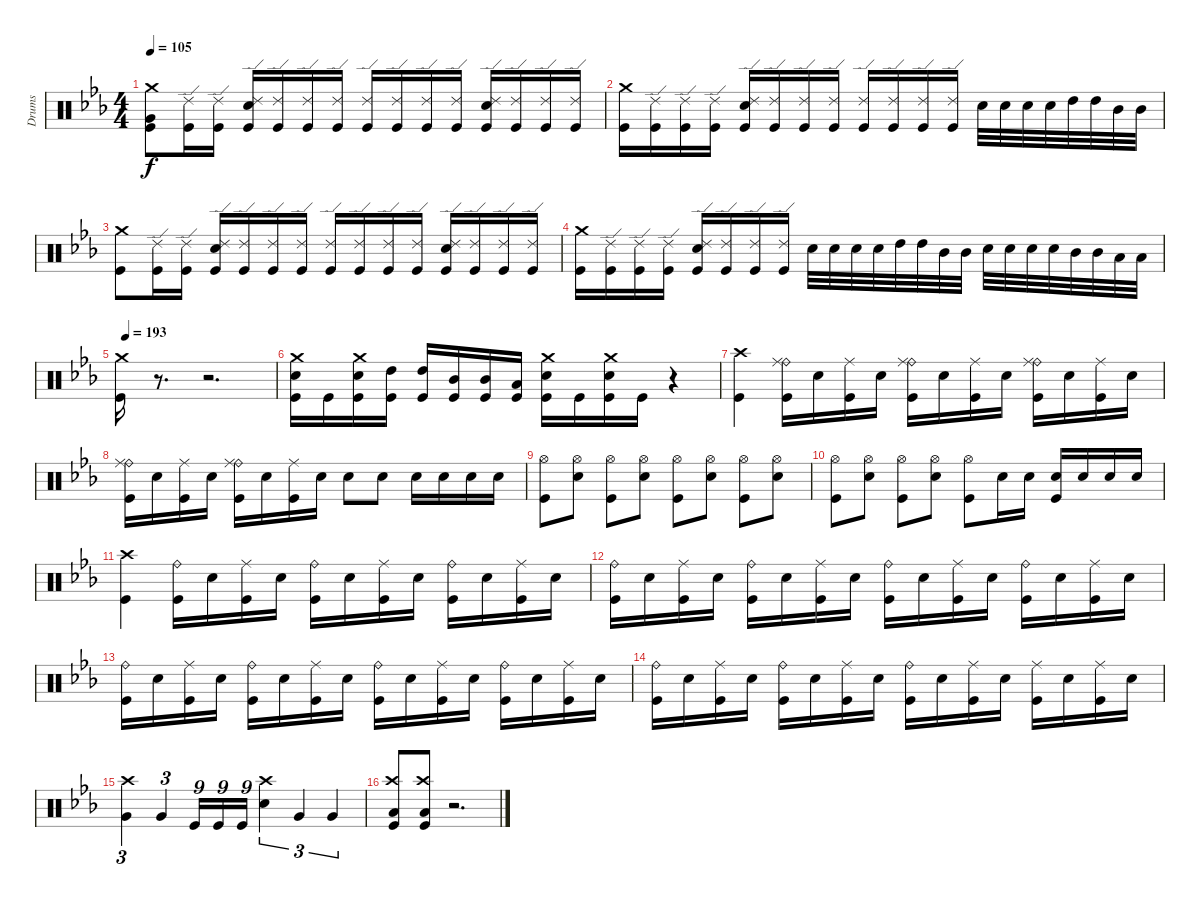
\track ("Drums" "Drums") {instrument percussion}
\staff {score}
\articulation defaults
\ts (4 4)
\tempo 105
\clef neutral
\ks cminor
("Crash medium (hit)" "Very Low Tom (hit)" "Kick (hit)").8{dy f} ("Ride (edge) 2" "Kick (hit)").16 ("Ride (edge) 2" "Kick (hit)").16 ("Ride (edge) 2" "Electric Snare (hit)" "Kick (hit)").16 ("Ride (edge) 2" "Kick (hit)").16 ("Ride (edge) 2" "Kick (hit)").16 ("Ride (edge) 2" "Kick (hit)").16 ("Ride (edge) 2" "Kick (hit)").16 ("Ride (edge) 2" "Kick (hit)").16 ("Ride (edge) 2" "Kick (hit)").16 ("Ride (edge) 2" "Kick (hit)").16 ("Ride (edge) 2" "Electric Snare (hit)" "Kick (hit)").16 ("Ride (edge) 2" "Kick (hit)").16 ("Ride (edge) 2" "Kick (hit)").16 ("Ride (edge) 2" "Kick (hit)").16 |
("Crash medium (hit)" "Kick (hit)").16 ("Ride (edge) 2" "Kick (hit)").16 ("Ride (edge) 2" "Kick (hit)").16 ("Ride (edge) 2" "Kick (hit)").16 ("Ride (edge) 2" "Electric Snare (hit)" "Kick (hit)").16 ("Ride (edge) 2" "Kick (hit)").16 ("Ride (edge) 2" "Kick (hit)").16 ("Ride (edge) 2" "Kick (hit)").16 ("Ride (edge) 2" "Kick (hit)").16 ("Ride (edge) 2" "Kick (hit)").16 ("Ride (edge) 2" "Kick (hit)").16 ("Ride (edge) 2" "Kick (hit)").16 "Electric Snare (hit)".32 "Electric Snare (hit)".32 "Electric Snare (hit)".32 "Electric Snare (hit)".32 "High Tom (hit)".32 "High Tom (hit)".32 "Mid Tom (hit)".32 "Mid Tom (hit)".32 |
("Crash medium (hit)" "Kick (hit)").8 ("Ride (edge) 2" "Kick (hit)").16 ("Ride (edge) 2" "Kick (hit)").16 ("Ride (edge) 2" "Electric Snare (hit)" "Kick (hit)").16 ("Ride (edge) 2" "Kick (hit)").16 ("Ride (edge) 2" "Kick (hit)").16 ("Ride (edge) 2" "Kick (hit)").16 ("Ride (edge) 2" "Kick (hit)").16 ("Ride (edge) 2" "Kick (hit)").16 ("Ride (edge) 2" "Kick (hit)").16 ("Ride (edge) 2" "Kick (hit)").16 ("Ride (edge) 2" "Electric Snare (hit)" "Kick (hit)").16 ("Ride (edge) 2" "Kick (hit)").16 ("Ride (edge) 2" "Kick (hit)").16 ("Ride (edge) 2" "Kick (hit)").16 |
("Crash medium (hit)" "Kick (hit)").16 ("Ride (edge) 2" "Kick (hit)").16 ("Ride (edge) 2" "Kick (hit)").16 ("Ride (edge) 2" "Kick (hit)").16 ("Ride (edge) 2" "Electric Snare (hit)" "Kick (hit)").16 ("Ride (edge) 2" "Kick (hit)").16 ("Ride (edge) 2" "Kick (hit)").16 ("Ride (edge) 2" "Kick (hit)").16 "Electric Snare (hit)".32 "Electric Snare (hit)".32 "Electric Snare (hit)".32 "Electric Snare (hit)".32 "High Tom (hit)".32 "High Tom (hit)".32 "Mid Tom (hit)".32 "Mid Tom (hit)".32 "Electric Snare (hit)".32 "Electric Snare (hit)".32 "Electric Snare (hit)".32 "Electric Snare (hit)".32 "Mid Tom (hit)".32 "Mid Tom (hit)".32 "Low Tom (hit)".32 "Low Tom (hit)".32 |
\tempo (193 0.03125)
("Crash medium (hit)" "Kick (hit)").16 r.8{d} r.2{d} |
("Crash medium (hit)" "Electric Snare (hit)" "Kick (hit)").16 "Kick (hit)".16 ("Crash medium (hit)" "Electric Snare (hit)" "Kick (hit)").16 ("High Tom (hit)" "Kick (hit)").16 ("High Tom (hit)" "Kick (hit)").16 ("Mid Tom (hit)" "Kick (hit)").16 ("Mid Tom (hit)" "Kick (hit)").16 ("Low Tom (hit)" "Kick (hit)").16 ("Crash medium (hit)" "Electric Snare (hit)" "Kick (hit)").16 "Kick (hit)".16 ("Crash medium (hit)" "Electric Snare (hit)" "Kick (hit)").16 "Kick (hit)".16 r.4 |
("Crash high (hit)" "Kick (hit)").4 ("Ride (bell)" "Ride (middle)" "Kick (hit)").16 "Electric Snare (hit)".16 ("Ride (middle)" "Kick (hit)").16 "Electric Snare (hit)".16 ("Ride (bell)" "Ride (middle)" "Kick (hit)").16 "Electric Snare (hit)".16 ("Ride (middle)" "Kick (hit)").16 "Electric Snare (hit)".16 ("Ride (bell)" "Ride (middle)" "Kick (hit)").16 "Electric Snare (hit)".16 ("Ride (middle)" "Kick (hit)").16 "Electric Snare (hit)".16 |
("Ride (bell)" "Ride (middle)" "Kick (hit)").16 "Electric Snare (hit)".16 ("Ride (middle)" "Kick (hit)").16 "Electric Snare (hit)".16 ("Ride (bell)" "Ride (middle)" "Kick (hit)").16 "Electric Snare (hit)".16 ("Ride (middle)" "Kick (hit)").16 "Electric Snare (hit)".16 "Electric Snare (hit)".8 "Electric Snare (hit)".8 "Electric Snare (hit)".16 "Electric Snare (hit)".16 "Electric Snare (hit)".16 "Electric Snare (hit)".16 |
("Hi-Hat (open)" "Kick (hit)").8 ("Hi-Hat (open)" "Electric Snare (hit)").8 ("Hi-Hat (open)" "Kick (hit)").8 ("Hi-Hat (open)" "Electric Snare (hit)").8 ("Hi-Hat (open)" "Kick (hit)").8 ("Hi-Hat (open)" "Electric Snare (hit)").8 ("Hi-Hat (open)" "Kick (hit)").8 ("Hi-Hat (open)" "Electric Snare (hit)").8 |
("Hi-Hat (open)" "Kick (hit)").8 ("Hi-Hat (open)" "Electric Snare (hit)").8 ("Hi-Hat (open)" "Kick (hit)").8 ("Hi-Hat (open)" "Electric Snare (hit)").8 ("Hi-Hat (open)" "Kick (hit)").8 "Electric Snare (hit)".16 "Electric Snare (hit)".16 ("Electric Snare (hit)" "Kick (hit)").16 "Electric Snare (hit)".16 "Electric Snare (hit)".16 "Electric Snare (hit)".16 |
("Crash high (hit)" "Kick (hit)").4 ("Ride (bell)" "Kick (hit)").16 "Electric Snare (hit)".16 ("Ride (middle)" "Kick (hit)").16 "Electric Snare (hit)".16 ("Ride (bell)" "Kick (hit)").16 "Electric Snare (hit)".16 ("Ride (middle)" "Kick (hit)").16 "Electric Snare (hit)".16 ("Ride (bell)" "Kick (hit)").16 "Electric Snare (hit)".16 ("Ride (middle)" "Kick (hit)").16 "Electric Snare (hit)".16 |
("Ride (bell)" "Kick (hit)").16 "Electric Snare (hit)".16 ("Ride (middle)" "Kick (hit)").16 "Electric Snare (hit)".16 ("Ride (bell)" "Kick (hit)").16 "Electric Snare (hit)".16 ("Ride (middle)" "Kick (hit)").16 "Electric Snare (hit)".16 ("Ride (bell)" "Kick (hit)").16 "Electric Snare (hit)".16 ("Ride (middle)" "Kick (hit)").16 "Electric Snare (hit)".16 ("Ride (bell)" "Kick (hit)").16 "Electric Snare (hit)".16 ("Ride (middle)" "Kick (hit)").16 "Electric Snare (hit)".16 |
("Ride (bell)" "Kick (hit)").16 "Electric Snare (hit)".16 ("Ride (middle)" "Kick (hit)").16 "Electric Snare (hit)".16 ("Ride (bell)" "Kick (hit)").16 "Electric Snare (hit)".16 ("Ride (middle)" "Kick (hit)").16 "Electric Snare (hit)".16 ("Ride (bell)" "Kick (hit)").16 "Electric Snare (hit)".16 ("Ride (middle)" "Kick (hit)").16 "Electric Snare (hit)".16 ("Ride (bell)" "Kick (hit)").16 "Electric Snare (hit)".16 ("Ride (middle)" "Kick (hit)").16 "Electric Snare (hit)".16 |
("Ride (bell)" "Kick (hit)").16 "Electric Snare (hit)".16 ("Ride (middle)" "Kick (hit)").16 "Electric Snare (hit)".16 ("Ride (bell)" "Kick (hit)").16 "Electric Snare (hit)".16 ("Ride (middle)" "Kick (hit)").16 "Electric Snare (hit)".16 ("Ride (bell)" "Kick (hit)").16 "Electric Snare (hit)".16 ("Ride (middle)" "Kick (hit)").16 "Electric Snare (hit)".16 ("Ride (middle)" "Kick (hit)").16 "Electric Snare (hit)".16 ("Ride (middle)" "Kick (hit)").16 "Electric Snare (hit)".16 |
("Crash high (hit)" "Very Low Tom (hit)").4{tu (3 2)} "Very Low Tom (hit)".4{tu (3 2)} "Kick (hit)".16{tu (9 8)} "Kick (hit)".16{tu (9 8)} "Kick (hit)".16{tu (9 8)} ("Crash high (hit)" "Electric Snare (hit)").4{tu (3 2)} "Very Low Tom (hit)".4{tu (3 2)} "Very Low Tom (hit)".4{tu (3 2)} |
("Crash high (hit)" "Low Floor Tom (hit)" "Kick (hit)").8 ("Crash high (hit)" "Low Floor Tom (hit)" "Kick (hit)").8 r.2{d}
